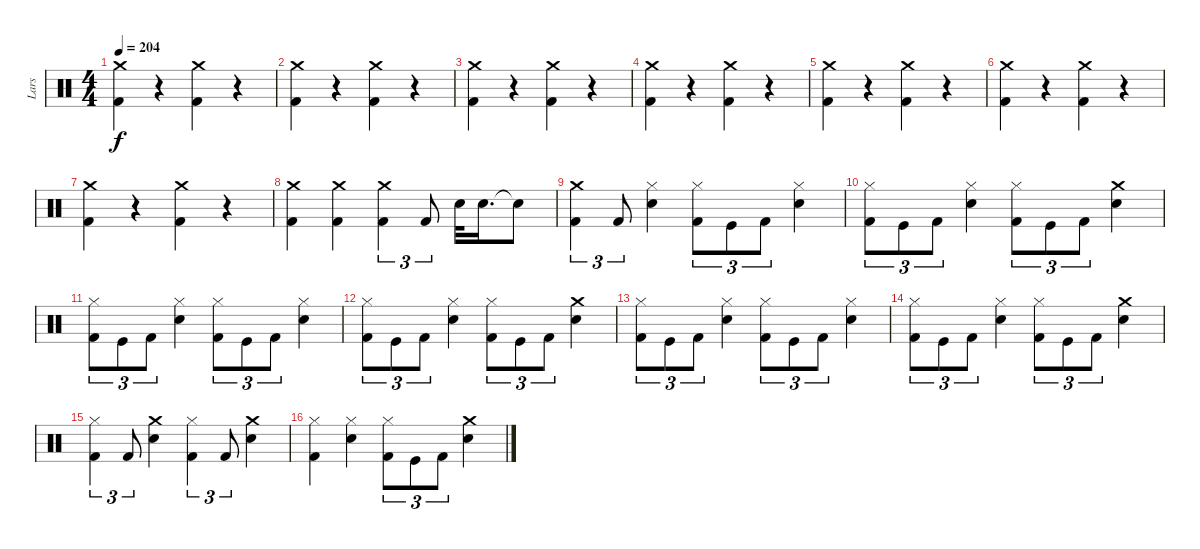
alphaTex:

\track ("Lars" "Lars") {instrument percussion}
\staff {score}
\articulation defaults
\ts (4 4)
\tempo 204
\clef neutral
\ks c
("Kick (hit) 2" "Crash medium (hit)").4{dy f} r.4 ("Kick (hit) 2" "Crash medium (hit)").4 r.4 |
("Kick (hit) 2" "Crash medium (hit)").4 r.4 ("Kick (hit) 2" "Crash medium (hit)").4 r.4 |
("Kick (hit) 2" "Crash medium (hit)").4 r.4 ("Kick (hit) 2" "Crash medium (hit)").4 r.4 |
("Kick (hit) 2" "Crash medium (hit)").4 r.4 ("Kick (hit) 2" "Crash medium (hit)").4 r.4 |
("Kick (hit) 2" "Crash medium (hit)").4 r.4 ("Kick (hit) 2" "Crash medium (hit)").4 r.4 |
("Kick (hit) 2" "Crash medium (hit)").4 r.4 ("Kick (hit) 2" "Crash medium (hit)").4 r.4 |
("Kick (hit) 2" "Crash medium (hit)").4 r.4 ("Kick (hit) 2" "Crash medium (hit)").4 r.4 |
("Kick (hit) 2" "Crash medium (hit)").4 ("Kick (hit) 2" "Crash medium (hit)").4 ("Kick (hit) 2" "Crash medium (hit)").4{tu (3 2)} "Kick (hit) 2".8{tu (3 2)} "Snare (hit) 2".32 "Snare (hit) 2".16{d} "Snare (hit)"{t}.8 |
("Crash medium (hit)" "Kick (hit) 2").4{tu (3 2)} "Kick (hit) 2".8{tu (3 2)} ("Snare (hit) 2" "Hi-Hat (closed)").4 ("Hi-Hat (closed)" "Kick (hit) 2").8{tu (3 2)} "Kick (hit)".8{tu (3 2)} "Kick (hit) 2".8{tu (3 2)} ("Hi-Hat (closed)" "Snare (hit) 2").4 |
("Hi-Hat (closed)" "Kick (hit) 2").8{tu (3 2)} "Kick (hit)".8{tu (3 2)} "Kick (hit) 2".8{tu (3 2)} ("Snare (hit) 2" "Hi-Hat (closed)").4 ("Hi-Hat (closed)" "Kick (hit) 2").8{tu (3 2)} "Kick (hit)".8{tu (3 2)} "Kick (hit) 2".8{tu (3 2)} ("Crash medium (hit)" "Snare (hit) 2").4 |
("Hi-Hat (closed)" "Kick (hit) 2").8{tu (3 2)} "Kick (hit)".8{tu (3 2)} "Kick (hit) 2".8{tu (3 2)} ("Snare (hit) 2" "Hi-Hat (closed)").4 ("Hi-Hat (closed)" "Kick (hit) 2").8{tu (3 2)} "Kick (hit)".8{tu (3 2)} "Kick (hit) 2".8{tu (3 2)} ("Hi-Hat (closed)" "Snare (hit) 2").4 |
("Hi-Hat (closed)" "Kick (hit) 2").8{tu (3 2)} "Kick (hit)".8{tu (3 2)} "Kick (hit) 2".8{tu (3 2)} ("Snare (hit) 2" "Hi-Hat (closed)").4 ("Hi-Hat (closed)" "Kick (hit) 2").8{tu (3 2)} "Kick (hit)".8{tu (3 2)} "Kick (hit) 2".8{tu (3 2)} ("Crash medium (hit)" "Snare (hit) 2").4 |
("Hi-Hat (closed)" "Kick (hit) 2").8{tu (3 2)} "Kick (hit)".8{tu (3 2)} "Kick (hit) 2".8{tu (3 2)} ("Snare (hit) 2" "Hi-Hat (closed)").4 ("Hi-Hat (closed)" "Kick (hit) 2").8{tu (3 2)} "Kick (hit)".8{tu (3 2)} "Kick (hit) 2".8{tu (3 2)} ("Hi-Hat (closed)" "Snare (hit) 2").4 |
("Hi-Hat (closed)" "Kick (hit) 2").8{tu (3 2)} "Kick (hit)".8{tu (3 2)} "Kick (hit) 2".8{tu (3 2)} ("Snare (hit) 2" "Hi-Hat (closed)").4 ("Hi-Hat (closed)" "Kick (hit) 2").8{tu (3 2)} "Kick (hit)".8{tu (3 2)} "Kick (hit) 2".8{tu (3 2)} ("Crash medium (hit)" "Snare (hit) 2").4 |
("Kick (hit) 2" "Hi-Hat (closed)").4{tu (3 2)} "Kick (hit) 2".8{tu (3 2)} ("Crash medium (hit)" "Snare (hit) 2").4 ("Kick (hit) 2" "Hi-Hat (closed)").4{tu (3 2)} "Kick (hit) 2".8{tu (3 2)} ("Crash medium (hit)" "Snare (hit) 2").4 |
("Hi-Hat (closed)" "Kick (hit) 2").4 ("Snare (hit) 2" "Hi-Hat (closed)").4 ("Hi-Hat (closed)" "Kick (hit) 2").8{tu (3 2)} "Kick (hit)".8{tu (3 2)} "Kick (hit) 2".8{tu (3 2)} ("Crash medium (hit)" "Snare (hit) 2").4
